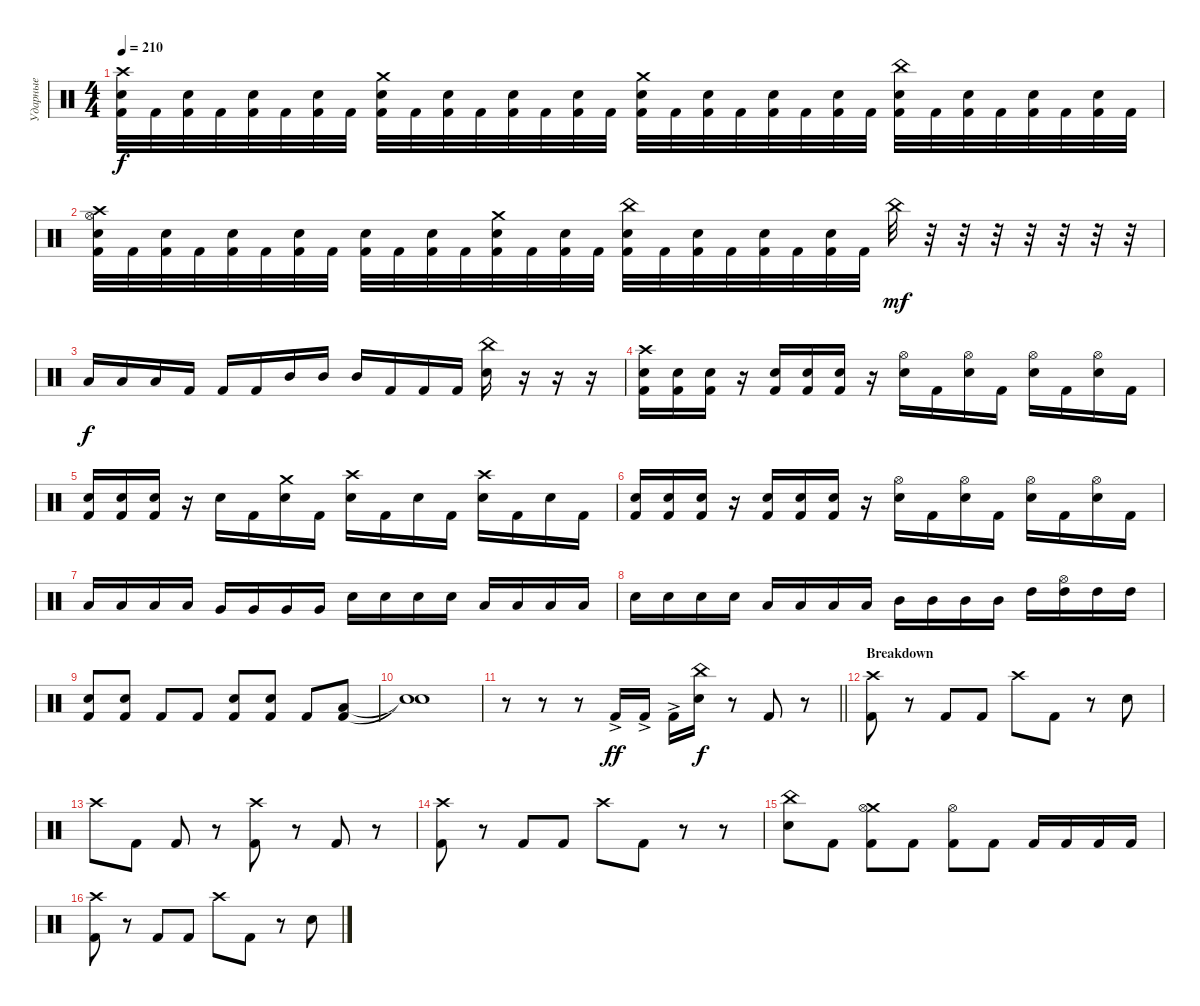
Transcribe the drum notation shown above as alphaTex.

\track ("Ударные" "Ударные") {instrument percussion}
\staff {score}
\articulation defaults
\ts (4 4)
\tempo 210
\clef neutral
\ks c
("Kick (hit) 2" "Electric Snare (hit)" "Crash high (hit)").32{dy f} "Kick (hit) 2".32 ("Kick (hit) 2" "Electric Snare (hit)").32 "Kick (hit) 2".32 ("Kick (hit) 2" "Electric Snare (hit)").32 "Kick (hit) 2".32 ("Kick (hit) 2" "Electric Snare (hit)").32 "Kick (hit) 2".32 ("Kick (hit) 2" "Electric Snare (hit)" "Crash medium (hit)").32 "Kick (hit) 2".32 ("Kick (hit) 2" "Electric Snare (hit)").32 "Kick (hit) 2".32 ("Kick (hit) 2" "Electric Snare (hit)").32 "Kick (hit) 2".32 ("Kick (hit) 2" "Electric Snare (hit)").32 "Kick (hit) 2".32 ("Kick (hit) 2" "Electric Snare (hit)" "Crash medium (hit)").32 "Kick (hit) 2".32 ("Kick (hit) 2" "Electric Snare (hit)").32 "Kick (hit) 2".32 ("Kick (hit) 2" "Electric Snare (hit)").32 "Kick (hit) 2".32 ("Kick (hit) 2" "Electric Snare (hit)").32 "Kick (hit) 2".32 ("Kick (hit) 2" "Electric Snare (hit)" "China (hit)").32 "Kick (hit) 2".32 ("Kick (hit) 2" "Electric Snare (hit)").32 "Kick (hit) 2".32 ("Kick (hit) 2" "Electric Snare (hit)").32 "Kick (hit) 2".32 ("Kick (hit) 2" "Electric Snare (hit)").32 "Kick (hit) 2".32 |
("Kick (hit) 2" "Electric Snare (hit)" "Hi-Hat (open)" "Crash high (hit)").32 "Kick (hit) 2".32 ("Kick (hit) 2" "Electric Snare (hit)").32 "Kick (hit) 2".32 ("Kick (hit) 2" "Electric Snare (hit)").32 "Kick (hit) 2".32 ("Kick (hit) 2" "Electric Snare (hit)").32 "Kick (hit) 2".32 ("Kick (hit) 2" "Electric Snare (hit)").32 "Kick (hit) 2".32 ("Kick (hit) 2" "Electric Snare (hit)").32 "Kick (hit) 2".32 ("Kick (hit) 2" "Electric Snare (hit)" "Crash medium (hit)").32 "Kick (hit) 2".32 ("Kick (hit) 2" "Electric Snare (hit)").32 "Kick (hit) 2".32 ("Kick (hit) 2" "Electric Snare (hit)" "China (hit)").32 "Kick (hit) 2".32 ("Kick (hit) 2" "Electric Snare (hit)").32 "Kick (hit) 2".32 ("Kick (hit) 2" "Electric Snare (hit)").32 "Kick (hit) 2".32 ("Kick (hit) 2" "Electric Snare (hit)").32 "Kick (hit) 2".32 "China (hit)".32{dy mf} r.32 r.32 r.32 r.32 r.32 r.32 r.32 |
"Low Tom (hit)".16{dy f} "Low Tom (hit)".16 "Low Tom (hit)".16 "Kick (hit) 2".16 "Kick (hit) 2".16 "Kick (hit) 2".16 "Mid Tom (hit)".16 "Mid Tom (hit)".16 "Mid Tom (hit)".16 "Kick (hit) 2".16 "Kick (hit) 2".16 "Kick (hit) 2".16 ("Electric Snare (hit)" "China (hit)").16 r.16 r.16 r.16 |
("Electric Snare (hit)" "Kick (hit) 2" "Crash high (hit)").16 ("Electric Snare (hit)" "Kick (hit) 2").16 ("Electric Snare (hit)" "Kick (hit) 2").16 r.16 ("Electric Snare (hit)" "Kick (hit) 2").16 ("Electric Snare (hit)" "Kick (hit) 2").16 ("Electric Snare (hit)" "Kick (hit) 2").16 r.16 ("Electric Snare (hit)" "Hi-Hat (open)").16 "Kick (hit) 2".16 ("Electric Snare (hit)" "Hi-Hat (open)").16 "Kick (hit) 2".16 ("Electric Snare (hit)" "Hi-Hat (open)").16 "Kick (hit) 2".16 ("Electric Snare (hit)" "Hi-Hat (open)").16 "Kick (hit) 2".16 |
("Electric Snare (hit)" "Kick (hit) 2").16 ("Electric Snare (hit)" "Kick (hit) 2").16 ("Electric Snare (hit)" "Kick (hit) 2").16 r.16 "Electric Snare (hit)".16 "Kick (hit) 2".16 ("Electric Snare (hit)" "Crash medium (hit)").16 "Kick (hit) 2".16 ("Electric Snare (hit)" "Crash high (hit)").16 "Kick (hit) 2".16 "Electric Snare (hit)".16 "Kick (hit) 2".16 ("Electric Snare (hit)" "Crash high (hit)").16 "Kick (hit) 2".16 "Electric Snare (hit)".16 "Kick (hit) 2".16 |
("Electric Snare (hit)" "Kick (hit) 2").16 ("Electric Snare (hit)" "Kick (hit) 2").16 ("Electric Snare (hit)" "Kick (hit) 2").16 r.16 ("Electric Snare (hit)" "Kick (hit) 2").16 ("Electric Snare (hit)" "Kick (hit) 2").16 ("Electric Snare (hit)" "Kick (hit) 2").16 r.16 ("Electric Snare (hit)" "Hi-Hat (open)").16 "Kick (hit) 2".16 ("Electric Snare (hit)" "Hi-Hat (open)").16 "Kick (hit) 2".16 ("Electric Snare (hit)" "Hi-Hat (open)").16 "Kick (hit) 2".16 ("Electric Snare (hit)" "Hi-Hat (open)").16 "Kick (hit) 2".16 |
"Low Tom (hit)".16 "Low Tom (hit)".16 "Low Tom (hit)".16 "Low Tom (hit)".16 "Very Low Tom (hit)".16 "Very Low Tom (hit)".16 "Very Low Tom (hit)".16 "Very Low Tom (hit)".16 "Electric Snare (hit)".16 "Electric Snare (hit)".16 "Electric Snare (hit)".16 "Electric Snare (hit)".16 "Low Tom (hit)".16 "Low Tom (hit)".16 "Low Tom (hit)".16 "Low Tom (hit)".16 |
"Electric Snare (hit)".16 "Electric Snare (hit)".16 "Electric Snare (hit)".16 "Electric Snare (hit)".16 "Low Tom (hit)".16 "Low Tom (hit)".16 "Low Tom (hit)".16 "Low Tom (hit)".16 "Mid Tom (hit)".16 "Mid Tom (hit)".16 "Mid Tom (hit)".16 "Mid Tom (hit)".16 "High Tom (hit)".16 ("High Tom (hit)" "Hi-Hat (open)").16 "High Tom (hit)".16 "High Tom (hit)".16 |
("Kick (hit) 2" "Electric Snare (hit)").8 ("Kick (hit) 2" "Electric Snare (hit)").8 "Kick (hit) 2".8 "Kick (hit) 2".8 ("Kick (hit) 2" "Electric Snare (hit)").8 ("Kick (hit) 2" "Electric Snare (hit)").8 "Kick (hit) 2".8 ("Kick (hit) 2" "Low Floor Tom (hit)").8 |
("Snare (hit)"{t} "Snare (hit)"{t}).1 |
\barLineRight lightlight
r.8 r.8 r.8 "Kick (hit) 2"{ac}.16{dy ff} "Kick (hit) 2"{ac}.16 "Kick (hit) 2"{ac}.16 ("Electric Snare (hit)" "China (hit)").16{dy f} r.8 "Kick (hit) 2".8 r.8 |
\section ("" "Breakdown")
("Kick (hit) 2" "Crash high (hit)").8 r.8 "Kick (hit) 2".8 "Kick (hit) 2".8 "Crash high (hit)".8 "Kick (hit) 2".8 r.8 "Electric Snare (hit)".8 |
"Crash high (hit)".8 "Kick (hit) 2".8 "Kick (hit) 2".8 r.8 ("Kick (hit) 2" "Crash high (hit)").8 r.8 "Kick (hit) 2".8 r.8 |
("Kick (hit) 2" "Crash high (hit)").8 r.8 "Kick (hit) 2".8 "Kick (hit) 2".8 "Crash high (hit)".8 "Kick (hit) 2".8 r.8 r.8 |
("Electric Snare (hit)" "China (hit)").8 "Kick (hit) 2".8 ("Kick (hit) 2" "Crash medium (hit)" "Hi-Hat (open)").8 "Kick (hit) 2".8 ("Kick (hit) 2" "Hi-Hat (open)").8 "Kick (hit) 2".8 "Kick (hit) 2".16 "Kick (hit) 2".16 "Kick (hit) 2".16 "Kick (hit) 2".16 |
("Kick (hit) 2" "Crash high (hit)").8 r.8 "Kick (hit) 2".8 "Kick (hit) 2".8 "Crash high (hit)".8 "Kick (hit) 2".8 r.8 "Electric Snare (hit)".8
